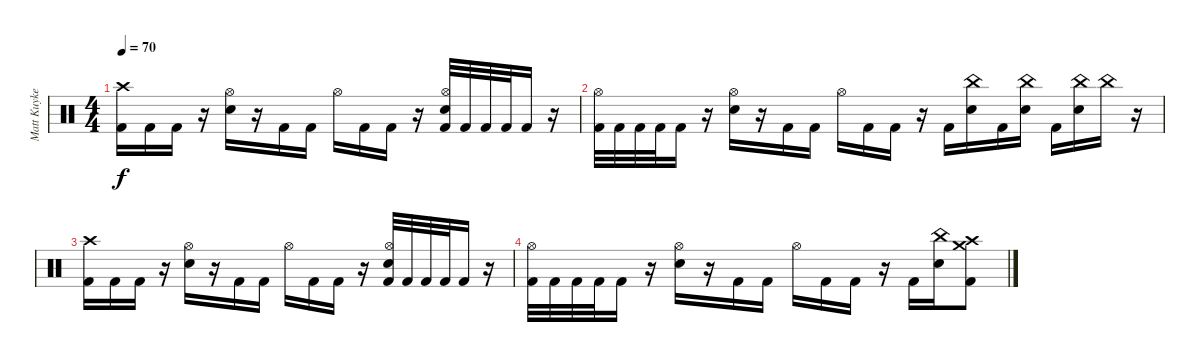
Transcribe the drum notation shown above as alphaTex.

\track ("Matt Kuykendall " "Matt Kuyke") {instrument percussion}
\staff {score}
\articulation defaults
\ts (4 4)
\tempo 70
\clef neutral
\ks c
("Crash high (hit)" "Kick (hit) 2").16{dy f} "Kick (hit) 2".16 "Kick (hit) 2".16 r.16 ("Hi-Hat (open)" "Snare (hit) 2").16 r.16 "Kick (hit) 2".16 "Kick (hit) 2".16 "Hi-Hat (open)".16 "Kick (hit) 2".16 "Kick (hit) 2".16 r.16 ("Hi-Hat (open)" "Snare (hit) 2" "Kick (hit) 2").32 "Kick (hit) 2".32 "Kick (hit) 2".32 "Kick (hit) 2".32 "Kick (hit) 2".16 r.16 |
("Hi-Hat (open)" "Kick (hit) 2").32 "Kick (hit) 2".32 "Kick (hit) 2".32 "Kick (hit) 2".32 "Kick (hit) 2".16 r.16 ("Hi-Hat (open)" "Snare (hit) 2").16 r.16 "Kick (hit) 2".16 "Kick (hit) 2".16 "Hi-Hat (open)".16 "Kick (hit) 2".16 "Kick (hit) 2".16 r.16 "Kick (hit) 2".16 ("China (hit)" "Snare (hit) 2").16 "Kick (hit) 2".16 ("China (hit)" "Snare (hit) 2").16 "Kick (hit) 2".16 ("China (hit)" "Snare (hit) 2").16 "China (hit)".16 r.16 |
("Crash high (hit)" "Kick (hit) 2").16 "Kick (hit) 2".16 "Kick (hit) 2".16 r.16 ("Hi-Hat (open)" "Snare (hit) 2").16 r.16 "Kick (hit) 2".16 "Kick (hit) 2".16 "Hi-Hat (open)".16 "Kick (hit) 2".16 "Kick (hit) 2".16 r.16 ("Hi-Hat (open)" "Snare (hit) 2" "Kick (hit) 2").32 "Kick (hit) 2".32 "Kick (hit) 2".32 "Kick (hit) 2".32 "Kick (hit) 2".16 r.16 |
("Hi-Hat (open)" "Kick (hit) 2").32 "Kick (hit) 2".32 "Kick (hit) 2".32 "Kick (hit) 2".32 "Kick (hit) 2".16 r.16 ("Hi-Hat (open)" "Snare (hit) 2").16 r.16 "Kick (hit) 2".16 "Kick (hit) 2".16 "Hi-Hat (open)".16 "Kick (hit) 2".16 "Kick (hit) 2".16 r.16 "Kick (hit) 2".16 ("China (hit)" "Snare (hit) 2").16 ("Crash high (hit)" "Crash medium (hit)" "Kick (hit) 2").8{volume 0}
